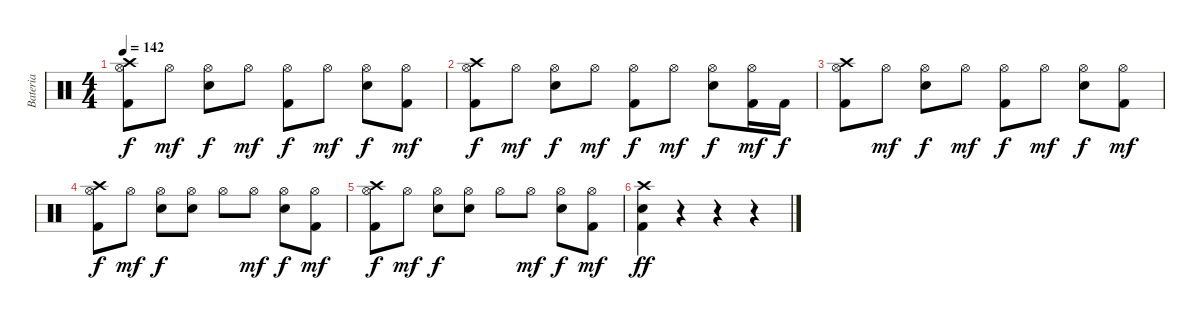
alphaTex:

\track ("Bateria" "Bateria") {instrument percussion}
\staff {score}
\articulation defaults
\ts (4 4)
\tempo 142
\clef neutral
\ks c
("Crash high (hit)" "Kick (hit) 2" "Hi-Hat (open)").8{dy f} "Hi-Hat (open)".8{dy mf} ("Electric Snare (hit)" "Hi-Hat (open)").8{dy f} "Hi-Hat (open)".8{dy mf} ("Kick (hit) 2" "Hi-Hat (open)").8{dy f} "Hi-Hat (open)".8{dy mf} ("Electric Snare (hit)" "Hi-Hat (open)").8{dy f} ("Kick (hit) 2" "Hi-Hat (open)").8{dy mf} |
("Crash high (hit)" "Kick (hit) 2" "Hi-Hat (open)").8{dy f} "Hi-Hat (open)".8{dy mf} ("Electric Snare (hit)" "Hi-Hat (open)").8{dy f} "Hi-Hat (open)".8{dy mf} ("Kick (hit) 2" "Hi-Hat (open)").8{dy f} "Hi-Hat (open)".8{dy mf} ("Electric Snare (hit)" "Hi-Hat (open)").8{dy f} ("Kick (hit) 2" "Hi-Hat (open)").16{dy mf} "Kick (hit) 2".16{dy f} |
("Crash high (hit)" "Kick (hit) 2" "Hi-Hat (open)").8 "Hi-Hat (open)".8{dy mf} ("Electric Snare (hit)" "Hi-Hat (open)").8{dy f} "Hi-Hat (open)".8{dy mf} ("Kick (hit) 2" "Hi-Hat (open)").8{dy f} "Hi-Hat (open)".8{dy mf} ("Electric Snare (hit)" "Hi-Hat (open)").8{dy f} ("Kick (hit) 2" "Hi-Hat (open)").8{dy mf} |
("Crash high (hit)" "Kick (hit) 2" "Hi-Hat (open)").8{dy f} "Hi-Hat (open)".8{dy mf} ("Electric Snare (hit)" "Hi-Hat (open)").8{dy f} ("Electric Snare (hit)" "Hi-Hat (open)").8 "Hi-Hat (open)".8 "Hi-Hat (open)".8{dy mf} ("Electric Snare (hit)" "Hi-Hat (open)").8{dy f} ("Kick (hit) 2" "Hi-Hat (open)").8{dy mf} |
("Crash high (hit)" "Kick (hit) 2" "Hi-Hat (open)").8{dy f} "Hi-Hat (open)".8{dy mf} ("Electric Snare (hit)" "Hi-Hat (open)").8{dy f} ("Electric Snare (hit)" "Hi-Hat (open)").8 "Hi-Hat (open)".8 "Hi-Hat (open)".8{dy mf} ("Electric Snare (hit)" "Hi-Hat (open)").8{dy f} ("Kick (hit) 2" "Hi-Hat (open)").8{dy mf} |
("Electric Snare (hit)" "Crash high (hit)" "Kick (hit) 2").4{dy ff} r.4 r.4 r.4
